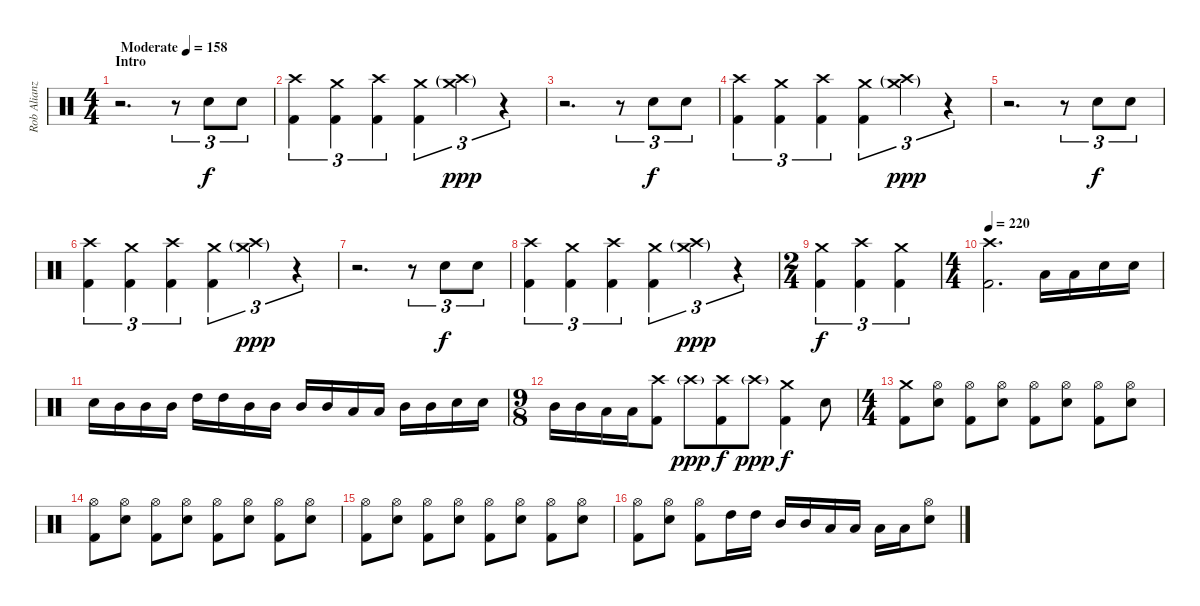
\track ("Rob Alianz" "Rob Alianz") {instrument percussion}
\staff {score}
\articulation defaults
\ts (4 4)
\section ("" "Intro")
\tempo (158 "Moderate")
\clef neutral
\ks c
r.2{d dy f} r.8{tu (3 2)} "Electric Snare (hit)".8{tu (3 2)} "Electric Snare (hit)".8{tu (3 2)} |
("Crash high (hit)" "Kick (hit) 2").4{tu (3 2)} ("Crash medium (hit)" "Kick (hit) 2").4{tu (3 2)} ("Crash high (hit)" "Kick (hit) 2").4{tu (3 2)} ("Crash medium (hit)" "Kick (hit) 2").4{tu (3 2)} ("Crash medium (hit)"{g} "Crash high (hit)"{g}).4{tu (3 2) dy ppp} r.4{tu (3 2)} |
r.2{d} r.8{tu (3 2)} "Electric Snare (hit)".8{tu (3 2) dy f} "Electric Snare (hit)".8{tu (3 2)} |
("Crash high (hit)" "Kick (hit) 2").4{tu (3 2)} ("Crash medium (hit)" "Kick (hit) 2").4{tu (3 2)} ("Crash high (hit)" "Kick (hit) 2").4{tu (3 2)} ("Crash medium (hit)" "Kick (hit) 2").4{tu (3 2)} ("Crash medium (hit)"{g} "Crash high (hit)"{g}).4{tu (3 2) dy ppp} r.4{tu (3 2)} |
r.2{d} r.8{tu (3 2)} "Electric Snare (hit)".8{tu (3 2) dy f} "Electric Snare (hit)".8{tu (3 2)} |
("Crash high (hit)" "Kick (hit) 2").4{tu (3 2)} ("Crash medium (hit)" "Kick (hit) 2").4{tu (3 2)} ("Crash high (hit)" "Kick (hit) 2").4{tu (3 2)} ("Crash medium (hit)" "Kick (hit) 2").4{tu (3 2)} ("Crash medium (hit)"{g} "Crash high (hit)"{g}).4{tu (3 2) dy ppp} r.4{tu (3 2)} |
r.2{d} r.8{tu (3 2)} "Electric Snare (hit)".8{tu (3 2) dy f} "Electric Snare (hit)".8{tu (3 2)} |
("Crash high (hit)" "Kick (hit) 2").4{tu (3 2)} ("Crash medium (hit)" "Kick (hit) 2").4{tu (3 2)} ("Crash high (hit)" "Kick (hit) 2").4{tu (3 2)} ("Crash medium (hit)" "Kick (hit) 2").4{tu (3 2)} ("Crash medium (hit)"{g} "Crash high (hit)"{g}).4{tu (3 2) dy ppp} r.4{tu (3 2)} |
\ts (2 4)
("Crash medium (hit)" "Kick (hit) 2").4{tu (3 2) dy f} ("Crash high (hit)" "Kick (hit) 2").4{tu (3 2)} ("Crash medium (hit)" "Kick (hit) 2").4{tu (3 2)} |
\ts (4 4)
\tempo 220
("Crash high (hit)" "Kick (hit) 2").2{d} "Low Tom (hit)".16 "Low Tom (hit)".16 "Electric Snare (hit)".16 "Electric Snare (hit)".16 |
"Electric Snare (hit)".16 "Mid Tom (hit)".16 "Mid Tom (hit)".16 "Mid Tom (hit)".16 "High Tom (hit)".16 "High Tom (hit)".16 "Mid Tom (hit)".16 "Mid Tom (hit)".16 "Mid Tom (hit)".16 "Mid Tom (hit)".16 "Low Tom (hit)".16 "Low Tom (hit)".16 "Mid Tom (hit)".16 "Mid Tom (hit)".16 "Electric Snare (hit)".16 "Electric Snare (hit)".16 |
\ts (9 8)
"Mid Tom (hit)".16 "Mid Tom (hit)".16 "Low Tom (hit)".16 "Low Tom (hit)".16 ("Crash high (hit)" "Kick (hit) 2").8 "Crash high (hit)"{g}.8{dy ppp} ("Crash high (hit)" "Kick (hit) 2").8{dy f} "Crash high (hit)"{g}.8{dy ppp} ("Crash medium (hit)" "Kick (hit) 2").4{dy f} "Electric Snare (hit)".8 |
\ts (4 4)
("Crash medium (hit)" "Kick (hit) 2").8 ("Hi-Hat (open)" "Electric Snare (hit)").8 ("Hi-Hat (open)" "Kick (hit) 2").8 ("Hi-Hat (open)" "Electric Snare (hit)").8 ("Hi-Hat (open)" "Kick (hit) 2").8 ("Hi-Hat (open)" "Electric Snare (hit)").8 ("Hi-Hat (open)" "Kick (hit) 2").8 ("Hi-Hat (open)" "Electric Snare (hit)").8 |
("Hi-Hat (open)" "Kick (hit) 2").8 ("Hi-Hat (open)" "Electric Snare (hit)").8 ("Hi-Hat (open)" "Kick (hit) 2").8 ("Hi-Hat (open)" "Electric Snare (hit)").8 ("Hi-Hat (open)" "Kick (hit) 2").8 ("Hi-Hat (open)" "Electric Snare (hit)").8 ("Hi-Hat (open)" "Kick (hit) 2").8 ("Hi-Hat (open)" "Electric Snare (hit)").8 |
("Hi-Hat (open)" "Kick (hit) 2").8 ("Hi-Hat (open)" "Electric Snare (hit)").8 ("Hi-Hat (open)" "Kick (hit) 2").8 ("Hi-Hat (open)" "Electric Snare (hit)").8 ("Hi-Hat (open)" "Kick (hit) 2").8 ("Hi-Hat (open)" "Electric Snare (hit)").8 ("Hi-Hat (open)" "Kick (hit) 2").8 ("Hi-Hat (open)" "Electric Snare (hit)").8 |
("Hi-Hat (open)" "Kick (hit) 2").8 ("Hi-Hat (open)" "Electric Snare (hit)").8 ("Hi-Hat (open)" "Kick (hit) 2").8 "High Tom (hit)".16 "High Tom (hit)".16 "Mid Tom (hit)".16 "Mid Tom (hit)".16 "Low Tom (hit)".16 "Low Tom (hit)".16 "Low Tom (hit)".16 "Low Tom (hit)".16 ("Hi-Hat (open)" "Electric Snare (hit)").8
